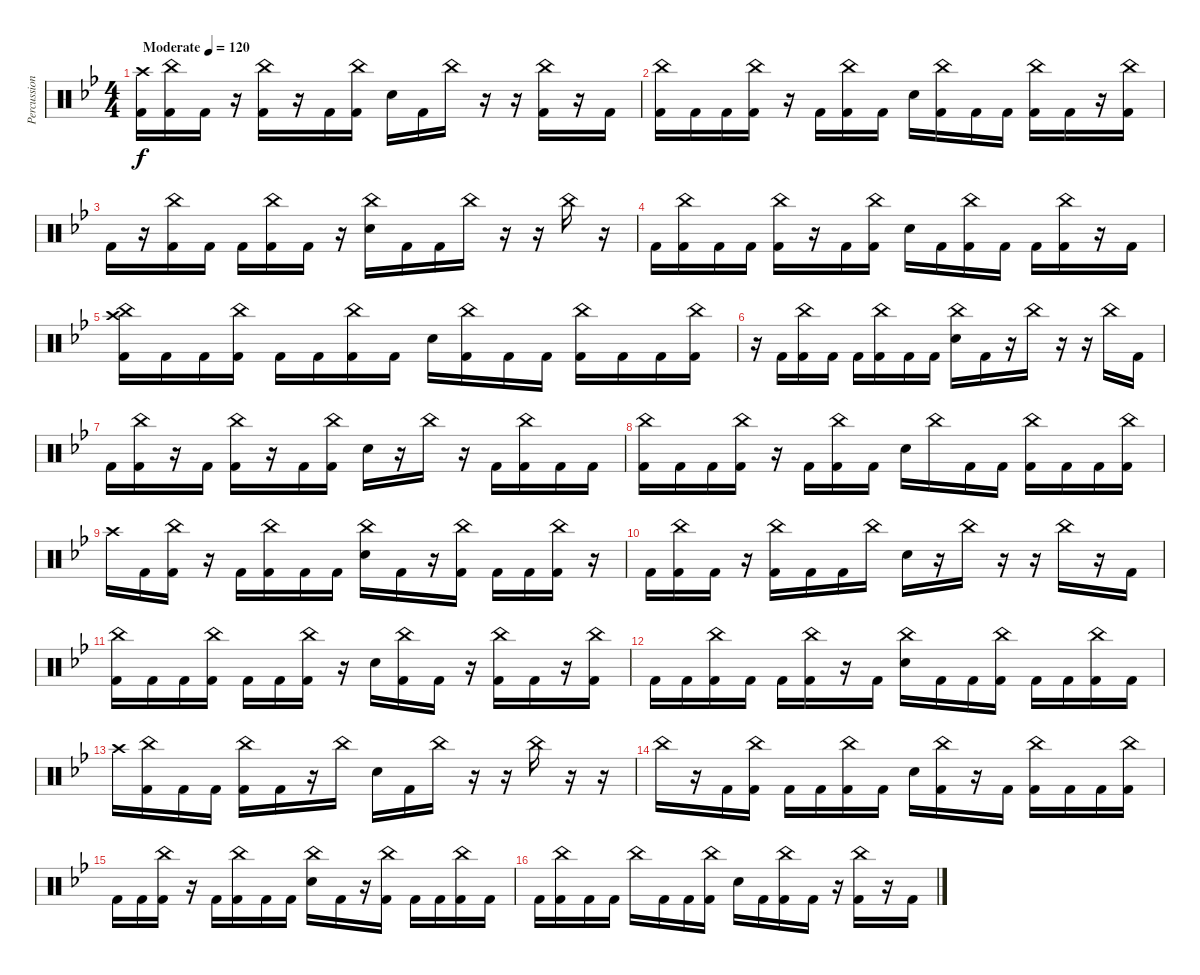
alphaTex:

\track ("Percussion" "Percussion") {instrument percussion}
\staff {score}
\articulation defaults
\ts (4 4)
\tempo (120 "Moderate")
\clef neutral
\ks bb
("Crash high (hit)" "Kick (hit) 2").16{dy f} ("China (hit)" "Kick (hit) 2").16 "Kick (hit) 2".16 r.16 ("China (hit)" "Kick (hit) 2").16 r.16 "Kick (hit) 2".16 ("China (hit)" "Kick (hit) 2").16 "Electric Snare (hit)".16 "Kick (hit) 2".16 "China (hit)".16 r.16 r.16 ("China (hit)" "Kick (hit) 2").16 r.16 "Kick (hit) 2".16 |
("China (hit)" "Kick (hit) 2").16 "Kick (hit) 2".16 "Kick (hit) 2".16 ("China (hit)" "Kick (hit) 2").16 r.16 "Kick (hit) 2".16 ("China (hit)" "Kick (hit) 2").16 "Kick (hit) 2".16 "Electric Snare (hit)".16 ("China (hit)" "Kick (hit) 2").16 "Kick (hit) 2".16 "Kick (hit) 2".16 ("China (hit)" "Kick (hit) 2").16 "Kick (hit) 2".16 r.16 ("China (hit)" "Kick (hit) 2").16 |
"Kick (hit) 2".16 r.16 ("China (hit)" "Kick (hit) 2").16 "Kick (hit) 2".16 "Kick (hit) 2".16 ("China (hit)" "Kick (hit) 2").16 "Kick (hit) 2".16 r.16 ("China (hit)" "Electric Snare (hit)").16 "Kick (hit) 2".16 "Kick (hit) 2".16 "China (hit)".16 r.16 r.16 "China (hit)".16 r.16 |
"Kick (hit) 2".16 ("China (hit)" "Kick (hit) 2").16 "Kick (hit) 2".16 "Kick (hit) 2".16 ("China (hit)" "Kick (hit) 2").16 r.16 "Kick (hit) 2".16 ("China (hit)" "Kick (hit) 2").16 "Electric Snare (hit)".16 "Kick (hit) 2".16 ("China (hit)" "Kick (hit) 2").16 "Kick (hit) 2".16 "Kick (hit) 2".16 ("China (hit)" "Kick (hit) 2").16 r.16 "Kick (hit) 2".16 |
("Crash high (hit)" "China (hit)" "Kick (hit) 2").16 "Kick (hit) 2".16 "Kick (hit) 2".16 ("China (hit)" "Kick (hit) 2").16 "Kick (hit) 2".16 "Kick (hit) 2".16 ("China (hit)" "Kick (hit) 2").16 "Kick (hit) 2".16 "Electric Snare (hit)".16 ("China (hit)" "Kick (hit) 2").16 "Kick (hit) 2".16 "Kick (hit) 2".16 ("China (hit)" "Kick (hit) 2").16 "Kick (hit) 2".16 "Kick (hit) 2".16 ("China (hit)" "Kick (hit) 2").16 |
r.16 "Kick (hit) 2".16 ("China (hit)" "Kick (hit) 2").16 "Kick (hit) 2".16 "Kick (hit) 2".16 ("China (hit)" "Kick (hit) 2").16 "Kick (hit) 2".16 "Kick (hit) 2".16 ("China (hit)" "Electric Snare (hit)").16 "Kick (hit) 2".16 r.16 "China (hit)".16 r.16 r.16 "China (hit)".16 "Kick (hit) 2".16 |
"Kick (hit) 2".16 ("China (hit)" "Kick (hit) 2").16 r.16 "Kick (hit) 2".16 ("China (hit)" "Kick (hit) 2").16 r.16 "Kick (hit) 2".16 ("China (hit)" "Kick (hit) 2").16 "Electric Snare (hit)".16 r.16 "China (hit)".16 r.16 "Kick (hit) 2".16 ("China (hit)" "Kick (hit) 2").16 "Kick (hit) 2".16 "Kick (hit) 2".16 |
("China (hit)" "Kick (hit) 2").16 "Kick (hit) 2".16 "Kick (hit) 2".16 ("China (hit)" "Kick (hit) 2").16 r.16 "Kick (hit) 2".16 ("China (hit)" "Kick (hit) 2").16 "Kick (hit) 2".16 "Electric Snare (hit)".16 "China (hit)".16 "Kick (hit) 2".16 "Kick (hit) 2".16 ("China (hit)" "Kick (hit) 2").16 "Kick (hit) 2".16 "Kick (hit) 2".16 ("China (hit)" "Kick (hit) 2").16 |
"Crash high (hit)".16 "Kick (hit) 2".16 ("China (hit)" "Kick (hit) 2").16 r.16 "Kick (hit) 2".16 ("China (hit)" "Kick (hit) 2").16 "Kick (hit) 2".16 "Kick (hit) 2".16 ("China (hit)" "Electric Snare (hit)").16 "Kick (hit) 2".16 r.16 ("China (hit)" "Kick (hit) 2").16 "Kick (hit) 2".16 "Kick (hit) 2".16 ("China (hit)" "Kick (hit) 2").16 r.16 |
"Kick (hit) 2".16 ("China (hit)" "Kick (hit) 2").16 "Kick (hit) 2".16 r.16 ("China (hit)" "Kick (hit) 2").16 "Kick (hit) 2".16 "Kick (hit) 2".16 "China (hit)".16 "Electric Snare (hit)".16 r.16 "China (hit)".16 r.16 r.16 "China (hit)".16 r.16 "Kick (hit) 2".16 |
("China (hit)" "Kick (hit) 2").16 "Kick (hit) 2".16 "Kick (hit) 2".16 ("China (hit)" "Kick (hit) 2").16 "Kick (hit) 2".16 "Kick (hit) 2".16 ("China (hit)" "Kick (hit) 2").16 r.16 "Electric Snare (hit)".16 ("China (hit)" "Kick (hit) 2").16 "Kick (hit) 2".16 r.16 ("China (hit)" "Kick (hit) 2").16 "Kick (hit) 2".16 r.16 ("China (hit)" "Kick (hit) 2").16 |
"Kick (hit) 2".16 "Kick (hit) 2".16 ("China (hit)" "Kick (hit) 2").16 "Kick (hit) 2".16 "Kick (hit) 2".16 ("China (hit)" "Kick (hit) 2").16 r.16 "Kick (hit) 2".16 ("China (hit)" "Electric Snare (hit)").16 "Kick (hit) 2".16 "Kick (hit) 2".16 ("China (hit)" "Kick (hit) 2").16 "Kick (hit) 2".16 "Kick (hit) 2".16 ("China (hit)" "Kick (hit) 2").16 "Kick (hit) 2".16 |
"Crash high (hit)".16 ("China (hit)" "Kick (hit) 2").16 "Kick (hit) 2".16 "Kick (hit) 2".16 ("China (hit)" "Kick (hit) 2").16 "Kick (hit) 2".16 r.16 "China (hit)".16 "Electric Snare (hit)".16 "Kick (hit) 2".16 "China (hit)".16 r.16 r.16 "China (hit)".16 r.16 r.16 |
"China (hit)".16 r.16 "Kick (hit) 2".16 ("China (hit)" "Kick (hit) 2").16 "Kick (hit) 2".16 "Kick (hit) 2".16 ("China (hit)" "Kick (hit) 2").16 "Kick (hit) 2".16 "Electric Snare (hit)".16 ("China (hit)" "Kick (hit) 2").16 r.16 "Kick (hit) 2".16 ("China (hit)" "Kick (hit) 2").16 "Kick (hit) 2".16 "Kick (hit) 2".16 ("China (hit)" "Kick (hit) 2").16 |
"Kick (hit) 2".16 "Kick (hit) 2".16 ("China (hit)" "Kick (hit) 2").16 r.16 "Kick (hit) 2".16 ("China (hit)" "Kick (hit) 2").16 "Kick (hit) 2".16 "Kick (hit) 2".16 ("China (hit)" "Electric Snare (hit)").16 "Kick (hit) 2".16 r.16 ("China (hit)" "Kick (hit) 2").16 "Kick (hit) 2".16 "Kick (hit) 2".16 ("China (hit)" "Kick (hit) 2").16 "Kick (hit) 2".16 |
"Kick (hit) 2".16 ("China (hit)" "Kick (hit) 2").16 "Kick (hit) 2".16 "Kick (hit) 2".16 "China (hit)".16 "Kick (hit) 2".16 "Kick (hit) 2".16 ("China (hit)" "Kick (hit) 2").16 "Electric Snare (hit)".16 "Kick (hit) 2".16 ("China (hit)" "Kick (hit) 2").16 "Kick (hit) 2".16 r.16 ("China (hit)" "Kick (hit) 2").16 r.16 "Kick (hit) 2".16
